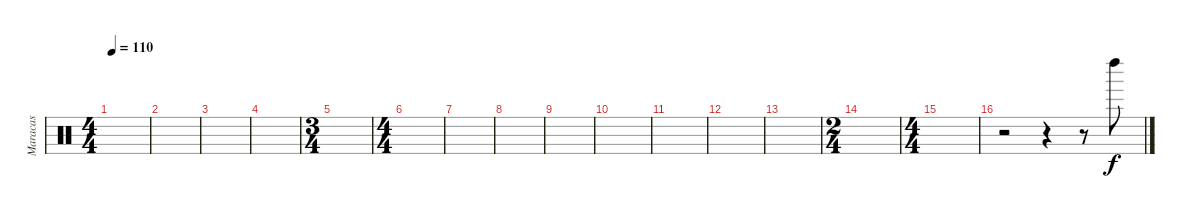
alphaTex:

\track ("Maracas" "Maracas") {instrument percussion}
\staff {score}
\articulation defaults
\ts (4 4)
\tempo 110
\clef neutral
\ks c
|
|
|
|
\ts (3 4)
|
\ts (4 4)
|
|
|
|
|
|
|
|
\ts (2 4)
|
\ts (4 4)
|
r.2 r.4 r.8 "Left Maraca (hit)".8
